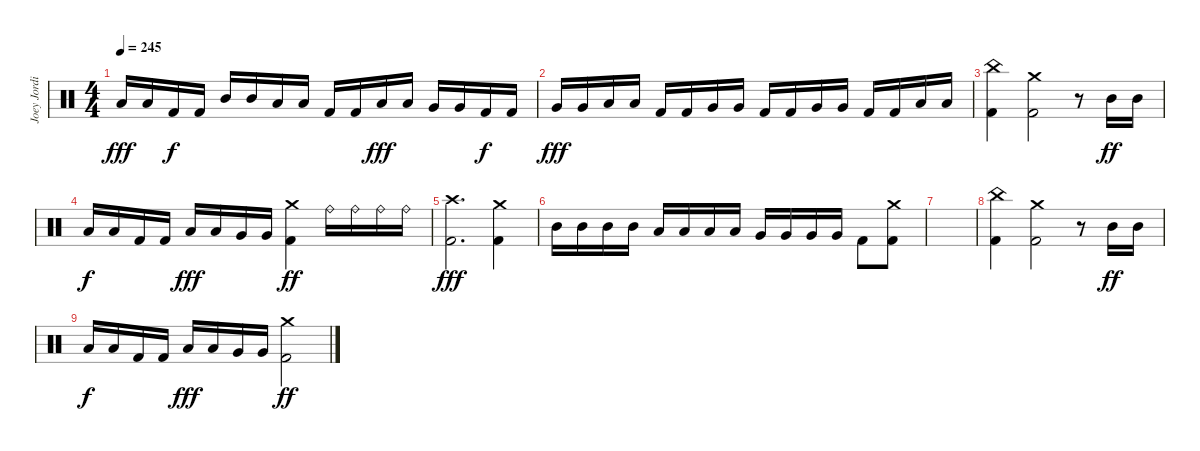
\track ("Joey Jordison" "Joey Jordi") {instrument percussion}
\staff {score}
\articulation defaults
\ts (4 4)
\tempo 245
\clef neutral
\ks c "Low Tom (hit)".16{dy fff} "Low Tom (hit)".16 "Kick (hit) 2".16{dy f} "Kick (hit) 2".16 "Mid Tom (hit)".16 "Mid Tom (hit)".16 "Low Tom (hit)".16 "Low Tom (hit)".16 "Kick (hit) 2".16 "Kick (hit) 2".16 "Low Tom (hit)".16{dy fff} "Low Tom (hit)".16 "Very Low Tom (hit)".16 "Very Low Tom (hit)".16 "Kick (hit) 2".16{dy f} "Kick (hit) 2".16
|
"Very Low Tom (hit)".16{dy fff} "Very Low Tom (hit)".16 "Low Floor Tom (hit)".16 "Low Floor Tom (hit)".16 "Kick (hit) 2".16 "Kick (hit) 2".16 "Very Low Tom (hit)".16 "Very Low Tom (hit)".16 "Kick (hit) 2".16 "Kick (hit) 2".16 "Very Low Tom (hit)".16 "Very Low Tom (hit)".16 "Kick (hit) 2".16 "Kick (hit) 2".16 "Low Floor Tom (hit)".16 "Low Floor Tom (hit)".16 |
("China (hit)" "Kick (hit) 2").4 ("Crash medium (hit)" "Kick (hit) 2").2 r.8 "Mid Tom (hit)".16{dy ff} "Mid Tom (hit)".16 |
"Low Tom (hit)".16{dy f} "Low Tom (hit)".16 "Kick (hit) 2".16 "Kick (hit) 2".16 "Low Tom (hit)".16{dy fff} "Low Tom (hit)".16 "Very Low Tom (hit)".16 "Very Low Tom (hit)".16 ("Crash medium (hit)" "Kick (hit) 2").4{dy ff} "Ride (bell)".16 "Ride (bell)".16 "Ride (bell)".16 "Ride (bell)".16 |
("Crash high (hit)" "Kick (hit) 2").2{d dy fff} ("Crash medium (hit)" "Kick (hit) 2").4 |
"Mid Tom (hit)".16 "Mid Tom (hit)".16 "Mid Tom (hit)".16 "Mid Tom (hit)".16 "Low Tom (hit)".16 "Low Tom (hit)".16 "Low Tom (hit)".16 "Low Tom (hit)".16 "Very Low Tom (hit)".16 "Very Low Tom (hit)".16 "Very Low Tom (hit)".16 "Very Low Tom (hit)".16 "Kick (hit) 2".8 ("Crash medium (hit)" "Kick (hit) 2").8 |
|
("China (hit)" "Kick (hit) 2").4 ("Crash medium (hit)" "Kick (hit) 2").2 r.8 "Mid Tom (hit)".16{dy ff} "Mid Tom (hit)".16 |
"Low Tom (hit)".16{dy f} "Low Tom (hit)".16 "Kick (hit) 2".16 "Kick (hit) 2".16 "Low Tom (hit)".16{dy fff} "Low Tom (hit)".16 "Very Low Tom (hit)".16 "Very Low Tom (hit)".16 ("Crash medium (hit)" "Kick (hit) 2").2{dy ff}
